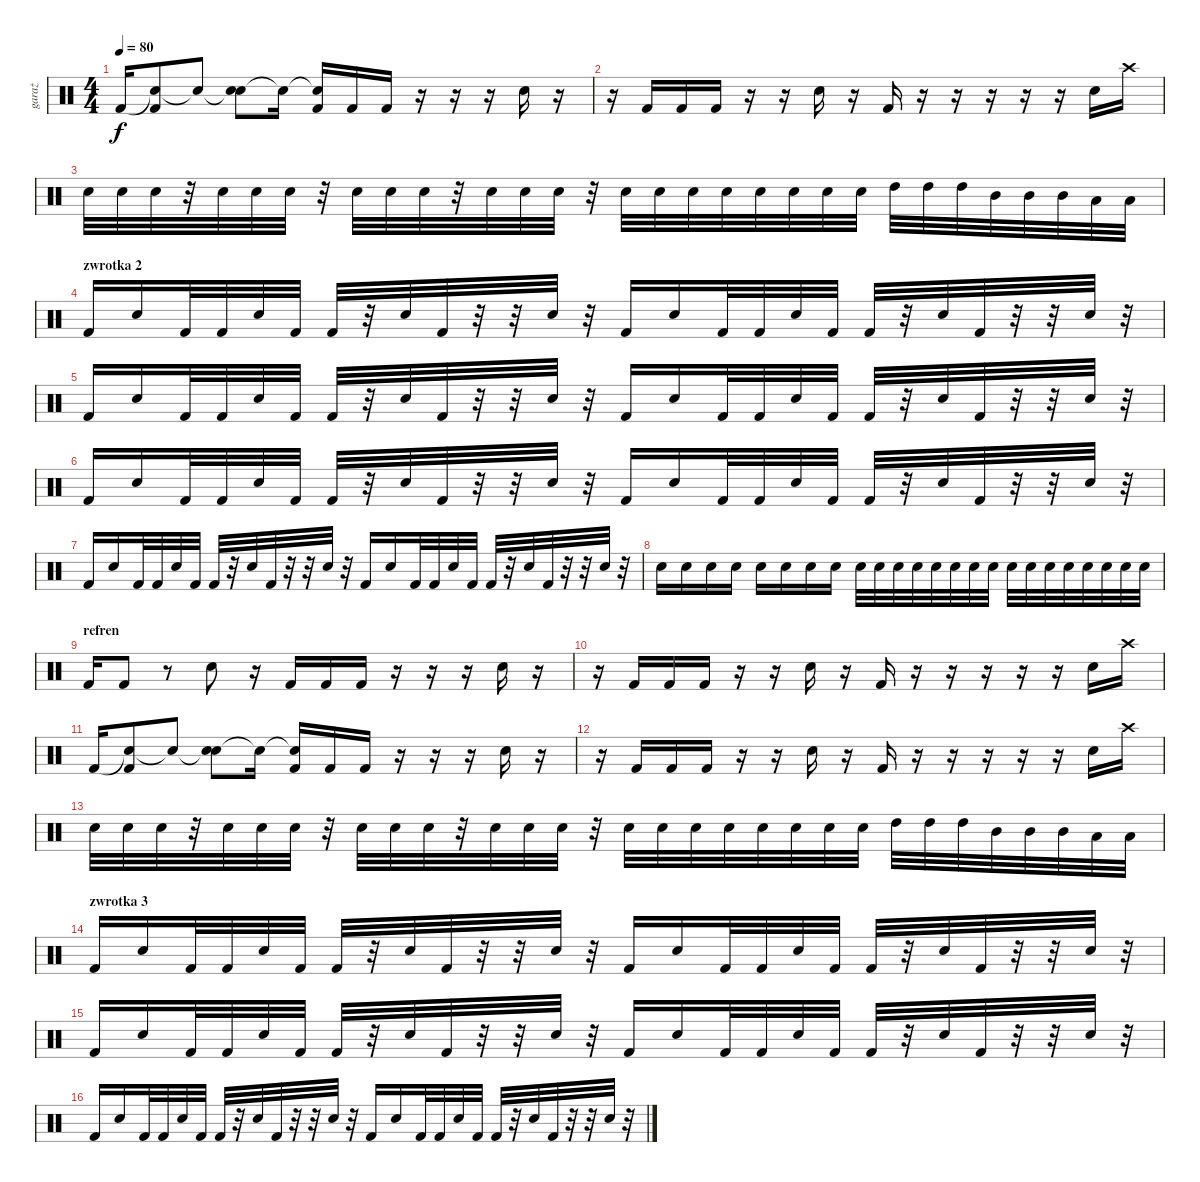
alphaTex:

\track ("garaż" "garaż") {instrument percussion}
\staff {score}
\articulation defaults
\ts (4 4)
\tempo 80
\clef neutral
\ks c "Kick (hit) 2".16{dy f}
("Snare (hit)"{t} "Kick (hit) 2").8 "Snare (hit)"{t}.8 ("Snare (hit)"{t} "Snare (hit) 2").8 "Snare (hit)"{t}.16 ("Snare (hit)"{t} "Kick (hit) 2").16 "Kick (hit) 2".16 "Kick (hit) 2".16 r.16 r.16 r.16 "Snare (hit) 2".16 r.16 |
r.16 "Kick (hit) 2".16 "Kick (hit) 2".16 "Kick (hit) 2".16 r.16 r.16 "Snare (hit) 2".16 r.16 "Kick (hit) 2".16 r.16 r.16 r.16 r.16 r.16 "Snare (hit) 2".16 "Crash high (hit)".16 |
"Snare (hit) 2".32 "Snare (hit) 2".32 "Snare (hit) 2".32 r.32 "Snare (hit) 2".32 "Snare (hit) 2".32 "Snare (hit) 2".32 r.32 "Snare (hit) 2".32 "Snare (hit) 2".32 "Snare (hit) 2".32 r.32 "Snare (hit) 2".32 "Snare (hit) 2".32 "Snare (hit) 2".32 r.32 "Snare (hit) 2".32 "Snare (hit) 2".32 "Snare (hit) 2".32 "Snare (hit) 2".32 "Snare (hit) 2".32 "Snare (hit) 2".32 "Snare (hit) 2".32 "Snare (hit) 2".32 "High Tom (hit)".32 "High Tom (hit)".32 "High Tom (hit)".32 "Mid Tom (hit)".32 "Mid Tom (hit)".32 "Mid Tom (hit)".32 "Low Tom (hit)".32 "Low Tom (hit)".32 |
\section ("" "zwrotka 2")
"Kick (hit) 2".16 "Snare (hit) 2".16 "Kick (hit) 2".32 "Kick (hit) 2".32 "Snare (hit) 2".32 "Kick (hit) 2".32 "Kick (hit) 2".32 r.32 "Snare (hit) 2".32 "Kick (hit) 2".32 r.32 r.32 "Snare (hit) 2".32 r.32 "Kick (hit) 2".16 "Snare (hit) 2".16 "Kick (hit) 2".32 "Kick (hit) 2".32 "Snare (hit) 2".32 "Kick (hit) 2".32 "Kick (hit) 2".32 r.32 "Snare (hit) 2".32 "Kick (hit) 2".32 r.32 r.32 "Snare (hit) 2".32 r.32 |
"Kick (hit) 2".16 "Snare (hit) 2".16 "Kick (hit) 2".32 "Kick (hit) 2".32 "Snare (hit) 2".32 "Kick (hit) 2".32 "Kick (hit) 2".32 r.32 "Snare (hit) 2".32 "Kick (hit) 2".32 r.32 r.32 "Snare (hit) 2".32 r.32 "Kick (hit) 2".16 "Snare (hit) 2".16 "Kick (hit) 2".32 "Kick (hit) 2".32 "Snare (hit) 2".32 "Kick (hit) 2".32 "Kick (hit) 2".32 r.32 "Snare (hit) 2".32 "Kick (hit) 2".32 r.32 r.32 "Snare (hit) 2".32 r.32 |
"Kick (hit) 2".16 "Snare (hit) 2".16 "Kick (hit) 2".32 "Kick (hit) 2".32 "Snare (hit) 2".32 "Kick (hit) 2".32 "Kick (hit) 2".32 r.32 "Snare (hit) 2".32 "Kick (hit) 2".32 r.32 r.32 "Snare (hit) 2".32 r.32 "Kick (hit) 2".16 "Snare (hit) 2".16 "Kick (hit) 2".32 "Kick (hit) 2".32 "Snare (hit) 2".32 "Kick (hit) 2".32 "Kick (hit) 2".32 r.32 "Snare (hit) 2".32 "Kick (hit) 2".32 r.32 r.32 "Snare (hit) 2".32 r.32 |
"Kick (hit) 2".16 "Snare (hit) 2".16 "Kick (hit) 2".32 "Kick (hit) 2".32 "Snare (hit) 2".32 "Kick (hit) 2".32 "Kick (hit) 2".32 r.32 "Snare (hit) 2".32 "Kick (hit) 2".32 r.32 r.32 "Snare (hit) 2".32 r.32 "Kick (hit) 2".16 "Snare (hit) 2".16 "Kick (hit) 2".32 "Kick (hit) 2".32 "Snare (hit) 2".32 "Kick (hit) 2".32 "Kick (hit) 2".32 r.32 "Snare (hit) 2".32 "Kick (hit) 2".32 r.32 r.32 "Snare (hit) 2".32 r.32 |
"Snare (hit) 2".16 "Snare (hit) 2".16 "Snare (hit) 2".16 "Snare (hit) 2".16 "Snare (hit) 2".16 "Snare (hit) 2".16 "Snare (hit) 2".16 "Snare (hit) 2".16 "Snare (hit) 2".32 "Snare (hit) 2".32 "Snare (hit) 2".32 "Snare (hit) 2".32 "Snare (hit) 2".32 "Snare (hit) 2".32 "Snare (hit) 2".32 "Snare (hit) 2".32 "Snare (hit) 2".32 "Snare (hit) 2".32 "Snare (hit) 2".32 "Snare (hit) 2".32 "Snare (hit) 2".32 "Snare (hit) 2".32 "Snare (hit) 2".32 "Snare (hit) 2".32 |
\section ("" "refren")
"Kick (hit) 2".16 "Kick (hit) 2".8 r.8 "Snare (hit) 2".8 r.16 "Kick (hit) 2".16 "Kick (hit) 2".16 "Kick (hit) 2".16 r.16 r.16 r.16 "Snare (hit) 2".16 r.16 |
r.16 "Kick (hit) 2".16 "Kick (hit) 2".16 "Kick (hit) 2".16 r.16 r.16 "Snare (hit) 2".16 r.16 "Kick (hit) 2".16 r.16 r.16 r.16 r.16 r.16 "Snare (hit) 2".16 "Crash high (hit)".16 |
"Kick (hit) 2".16 ("Snare (hit)"{t} "Kick (hit) 2").8 "Snare (hit)"{t}.8 ("Snare (hit)"{t} "Snare (hit) 2").8 "Snare (hit)"{t}.16 ("Snare (hit)"{t} "Kick (hit) 2").16 "Kick (hit) 2".16 "Kick (hit) 2".16 r.16 r.16 r.16 "Snare (hit) 2".16 r.16 |
r.16 "Kick (hit) 2".16 "Kick (hit) 2".16 "Kick (hit) 2".16 r.16 r.16 "Snare (hit) 2".16 r.16 "Kick (hit) 2".16 r.16 r.16 r.16 r.16 r.16 "Snare (hit) 2".16 "Crash high (hit)".16 |
"Snare (hit) 2".32 "Snare (hit) 2".32 "Snare (hit) 2".32 r.32 "Snare (hit) 2".32 "Snare (hit) 2".32 "Snare (hit) 2".32 r.32 "Snare (hit) 2".32 "Snare (hit) 2".32 "Snare (hit) 2".32 r.32 "Snare (hit) 2".32 "Snare (hit) 2".32 "Snare (hit) 2".32 r.32 "Snare (hit) 2".32 "Snare (hit) 2".32 "Snare (hit) 2".32 "Snare (hit) 2".32 "Snare (hit) 2".32 "Snare (hit) 2".32 "Snare (hit) 2".32 "Snare (hit) 2".32 "High Tom (hit)".32 "High Tom (hit)".32 "High Tom (hit)".32 "Mid Tom (hit)".32 "Mid Tom (hit)".32 "Mid Tom (hit)".32 "Low Tom (hit)".32 "Low Tom (hit)".32 |
\section ("" "zwrotka 3")
"Kick (hit) 2".16 "Snare (hit) 2".16 "Kick (hit) 2".32 "Kick (hit) 2".32 "Snare (hit) 2".32 "Kick (hit) 2".32 "Kick (hit) 2".32 r.32 "Snare (hit) 2".32 "Kick (hit) 2".32 r.32 r.32 "Snare (hit) 2".32 r.32 "Kick (hit) 2".16 "Snare (hit) 2".16 "Kick (hit) 2".32 "Kick (hit) 2".32 "Snare (hit) 2".32 "Kick (hit) 2".32 "Kick (hit) 2".32 r.32 "Snare (hit) 2".32 "Kick (hit) 2".32 r.32 r.32 "Snare (hit) 2".32 r.32 |
"Kick (hit) 2".16 "Snare (hit) 2".16 "Kick (hit) 2".32 "Kick (hit) 2".32 "Snare (hit) 2".32 "Kick (hit) 2".32 "Kick (hit) 2".32 r.32 "Snare (hit) 2".32 "Kick (hit) 2".32 r.32 r.32 "Snare (hit) 2".32 r.32 "Kick (hit) 2".16 "Snare (hit) 2".16 "Kick (hit) 2".32 "Kick (hit) 2".32 "Snare (hit) 2".32 "Kick (hit) 2".32 "Kick (hit) 2".32 r.32 "Snare (hit) 2".32 "Kick (hit) 2".32 r.32 r.32 "Snare (hit) 2".32 r.32 |
"Kick (hit) 2".16 "Snare (hit) 2".16 "Kick (hit) 2".32 "Kick (hit) 2".32 "Snare (hit) 2".32 "Kick (hit) 2".32 "Kick (hit) 2".32 r.32 "Snare (hit) 2".32 "Kick (hit) 2".32 r.32 r.32 "Snare (hit) 2".32 r.32 "Kick (hit) 2".16 "Snare (hit) 2".16 "Kick (hit) 2".32 "Kick (hit) 2".32 "Snare (hit) 2".32 "Kick (hit) 2".32 "Kick (hit) 2".32 r.32 "Snare (hit) 2".32 "Kick (hit) 2".32 r.32 r.32 "Snare (hit) 2".32 r.32
